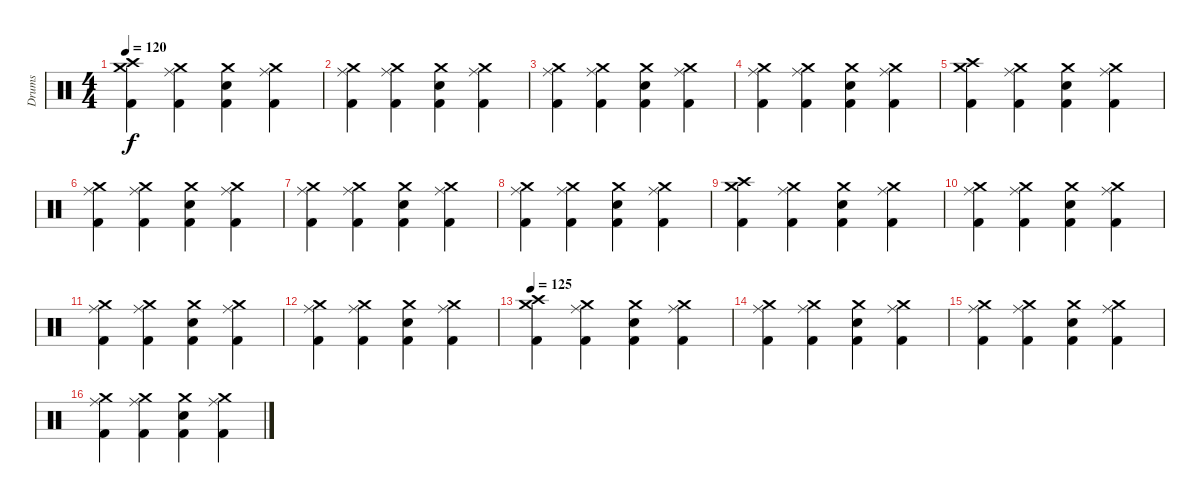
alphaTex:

\track ("Drums" "Drums") {instrument percussion}
\staff {score}
\articulation defaults
\ts (4 4)
\tempo 120
\clef neutral
\ks c
("Crash medium (hit)" "Crash high (hit)" "Kick (hit) 2").4{dy f} ("Crash medium (hit)" "Ride (middle)" "Kick (hit) 2").4 ("Crash medium (hit)" "Snare (hit) 2" "Kick (hit) 2").4 ("Crash medium (hit)" "Ride (middle)" "Kick (hit) 2").4 |
("Crash medium (hit)" "Ride (middle)" "Kick (hit) 2").4 ("Crash medium (hit)" "Ride (middle)" "Kick (hit) 2").4 ("Crash medium (hit)" "Snare (hit) 2" "Kick (hit) 2").4 ("Crash medium (hit)" "Ride (middle)" "Kick (hit) 2").4 |
("Crash medium (hit)" "Ride (middle)" "Kick (hit) 2").4 ("Crash medium (hit)" "Ride (middle)" "Kick (hit) 2").4 ("Crash medium (hit)" "Snare (hit) 2" "Kick (hit) 2").4 ("Crash medium (hit)" "Ride (middle)" "Kick (hit) 2").4 |
("Crash medium (hit)" "Ride (middle)" "Kick (hit) 2").4 ("Crash medium (hit)" "Ride (middle)" "Kick (hit) 2").4 ("Crash medium (hit)" "Snare (hit) 2" "Kick (hit) 2").4 ("Crash medium (hit)" "Ride (middle)" "Kick (hit) 2").4 |
("Crash medium (hit)" "Crash high (hit)" "Kick (hit) 2").4 ("Crash medium (hit)" "Ride (middle)" "Kick (hit) 2").4 ("Crash medium (hit)" "Snare (hit) 2" "Kick (hit) 2").4 ("Crash medium (hit)" "Ride (middle)" "Kick (hit) 2").4 |
("Crash medium (hit)" "Ride (middle)" "Kick (hit) 2").4 ("Crash medium (hit)" "Ride (middle)" "Kick (hit) 2").4 ("Crash medium (hit)" "Snare (hit) 2" "Kick (hit) 2").4 ("Crash medium (hit)" "Ride (middle)" "Kick (hit) 2").4 |
("Crash medium (hit)" "Ride (middle)" "Kick (hit) 2").4 ("Crash medium (hit)" "Ride (middle)" "Kick (hit) 2").4 ("Crash medium (hit)" "Snare (hit) 2" "Kick (hit) 2").4 ("Crash medium (hit)" "Ride (middle)" "Kick (hit) 2").4 |
("Crash medium (hit)" "Ride (middle)" "Kick (hit) 2").4 ("Crash medium (hit)" "Ride (middle)" "Kick (hit) 2").4 ("Crash medium (hit)" "Snare (hit) 2" "Kick (hit) 2").4 ("Crash medium (hit)" "Ride (middle)" "Kick (hit) 2").4 |
("Crash medium (hit)" "Crash high (hit)" "Kick (hit) 2").4 ("Crash medium (hit)" "Ride (middle)" "Kick (hit) 2").4 ("Crash medium (hit)" "Snare (hit) 2" "Kick (hit) 2").4 ("Crash medium (hit)" "Ride (middle)" "Kick (hit) 2").4 |
("Crash medium (hit)" "Ride (middle)" "Kick (hit) 2").4 ("Crash medium (hit)" "Ride (middle)" "Kick (hit) 2").4 ("Crash medium (hit)" "Snare (hit) 2" "Kick (hit) 2").4 ("Crash medium (hit)" "Ride (middle)" "Kick (hit) 2").4 |
("Crash medium (hit)" "Ride (middle)" "Kick (hit) 2").4 ("Crash medium (hit)" "Ride (middle)" "Kick (hit) 2").4 ("Crash medium (hit)" "Snare (hit) 2" "Kick (hit) 2").4 ("Crash medium (hit)" "Ride (middle)" "Kick (hit) 2").4 |
("Crash medium (hit)" "Ride (middle)" "Kick (hit) 2").4 ("Crash medium (hit)" "Ride (middle)" "Kick (hit) 2").4 ("Crash medium (hit)" "Snare (hit) 2" "Kick (hit) 2").4 ("Crash medium (hit)" "Ride (middle)" "Kick (hit) 2").4 |
\tempo 125
("Crash medium (hit)" "Crash high (hit)" "Kick (hit) 2").4 ("Crash medium (hit)" "Ride (middle)" "Kick (hit) 2").4 ("Crash medium (hit)" "Snare (hit) 2" "Kick (hit) 2").4 ("Crash medium (hit)" "Ride (middle)" "Kick (hit) 2").4 |
("Crash medium (hit)" "Ride (middle)" "Kick (hit) 2").4 ("Crash medium (hit)" "Ride (middle)" "Kick (hit) 2").4 ("Crash medium (hit)" "Snare (hit) 2" "Kick (hit) 2").4 ("Crash medium (hit)" "Ride (middle)" "Kick (hit) 2").4 |
("Crash medium (hit)" "Ride (middle)" "Kick (hit) 2").4 ("Crash medium (hit)" "Ride (middle)" "Kick (hit) 2").4 ("Crash medium (hit)" "Snare (hit) 2" "Kick (hit) 2").4 ("Crash medium (hit)" "Ride (middle)" "Kick (hit) 2").4 |
("Crash medium (hit)" "Ride (middle)" "Kick (hit) 2").4 ("Crash medium (hit)" "Ride (middle)" "Kick (hit) 2").4 ("Crash medium (hit)" "Snare (hit) 2" "Kick (hit) 2").4 ("Crash medium (hit)" "Ride (middle)" "Kick (hit) 2").4
